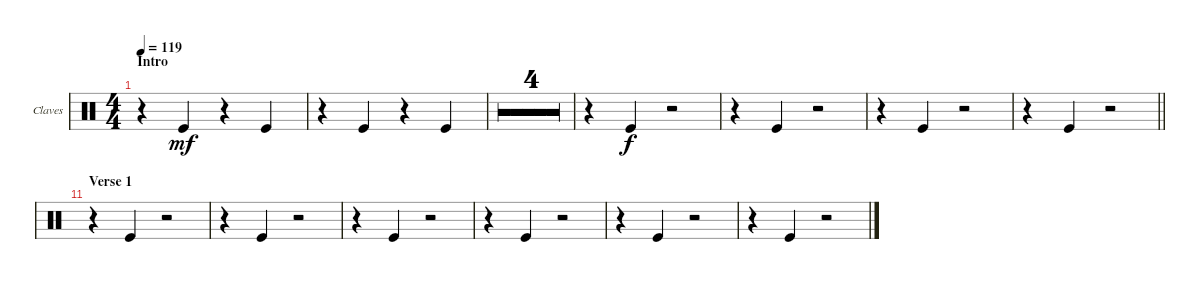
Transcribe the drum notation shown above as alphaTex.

\defaultSystemsLayout 4
\bracketExtendMode groupsimilarinstruments
\useSystemSignSeparator
\multiBarRest
\multiTrackTrackNamePolicy allsystems
\firstSystemTrackNameMode fullname
\firstSystemTrackNameOrientation horizontal
\otherSystemsTrackNameOrientation horizontal
\defaultBarNumberDisplay FirstOfSystem
\track ("Claves" "Claves") {multiBarRest instrument percussion}
\staff {score}
\articulation defaults
\ts (4 4)
\section ("" "Intro")
\tempo 119
\clef neutral
\ks aminor
r.4{dy mf} "Kick (hit)".4 r.4 "Kick (hit)".4 |
r.4 "Kick (hit)".4 r.4 "Kick (hit)".4 |
r.1 |
r.1 |
r.1 |
r.1 |
r.4 "Kick (hit)".4{dy f} r.2 |
r.4 "Kick (hit)".4 r.2 |
r.4 "Kick (hit)".4 r.2 |
\barLineRight lightlight
r.4 "Kick (hit)".4 r.2 |
\section ("" "Verse 1")
r.4 "Kick (hit)".4 r.2 |
r.4 "Kick (hit)".4 r.2 |
r.4 "Kick (hit)".4 r.2 |
r.4 "Kick (hit)".4 r.2 |
r.4 "Kick (hit)".4 r.2 |
r.4 "Kick (hit)".4 r.2
